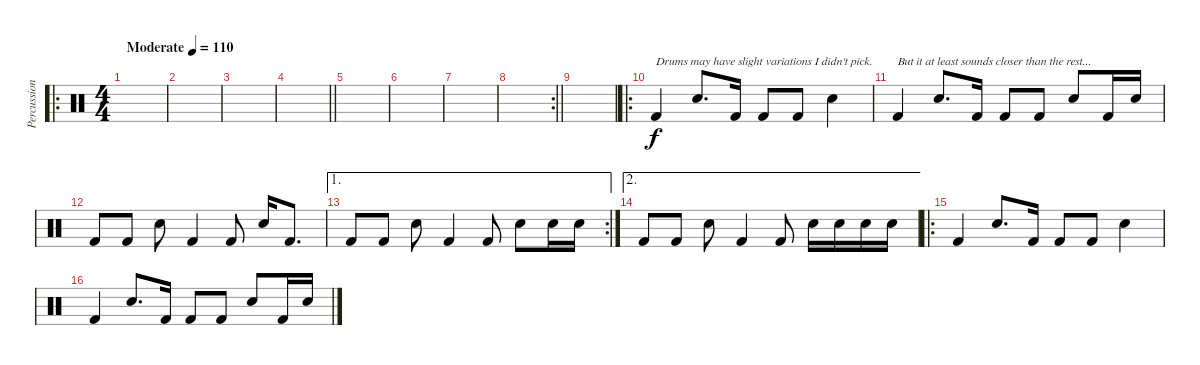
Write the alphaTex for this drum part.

\track ("Percussion" "Percussion") {instrument percussion}
\staff {score}
\articulation defaults
\ro
\ts (4 4)
\tempo (110 "Moderate")
\clef neutral
\ks c
|
|
|
\barLineRight lightlight
|
|
|
|
\rc 2
\barLineRight lightlight
|
|
\ro "Kick (hit) 2".4{txt "Drums may have slight variations I didn't pick."} "Snare (hit) 2".8{d} "Kick (hit) 2".16 "Kick (hit) 2".8 "Kick (hit) 2".8 "Snare (hit) 2".4
|
"Kick (hit) 2".4{txt "But it at least sounds closer than the rest..."} "Snare (hit) 2".8{d} "Kick (hit) 2".16 "Kick (hit) 2".8 "Kick (hit) 2".8 "Snare (hit) 2".8 "Kick (hit) 2".16 "Snare (hit) 2".16 |
"Kick (hit) 2".8 "Kick (hit) 2".8 "Snare (hit) 2".8 "Kick (hit) 2".4 "Kick (hit) 2".8 "Snare (hit) 2".16 "Kick (hit) 2".8{d} |
\ae 1
\rc 2 "Kick (hit) 2".8 "Kick (hit) 2".8 "Snare (hit) 2".8 "Kick (hit) 2".4 "Kick (hit) 2".8 "Snare (hit) 2".8 "Snare (hit) 2".16 "Snare (hit) 2".16
|
\ae 2 "Kick (hit) 2".8 "Kick (hit) 2".8 "Snare (hit) 2".8 "Kick (hit) 2".4 "Kick (hit) 2".8 "Snare (hit) 2".16 "Snare (hit) 2".16 "Snare (hit) 2".16 "Snare (hit) 2".16
|
\ro "Kick (hit) 2".4 "Snare (hit) 2".8{d} "Kick (hit) 2".16 "Kick (hit) 2".8 "Kick (hit) 2".8 "Snare (hit) 2".4
|
"Kick (hit) 2".4 "Snare (hit) 2".8{d} "Kick (hit) 2".16 "Kick (hit) 2".8 "Kick (hit) 2".8 "Snare (hit) 2".8 "Kick (hit) 2".16 "Snare (hit) 2".16
